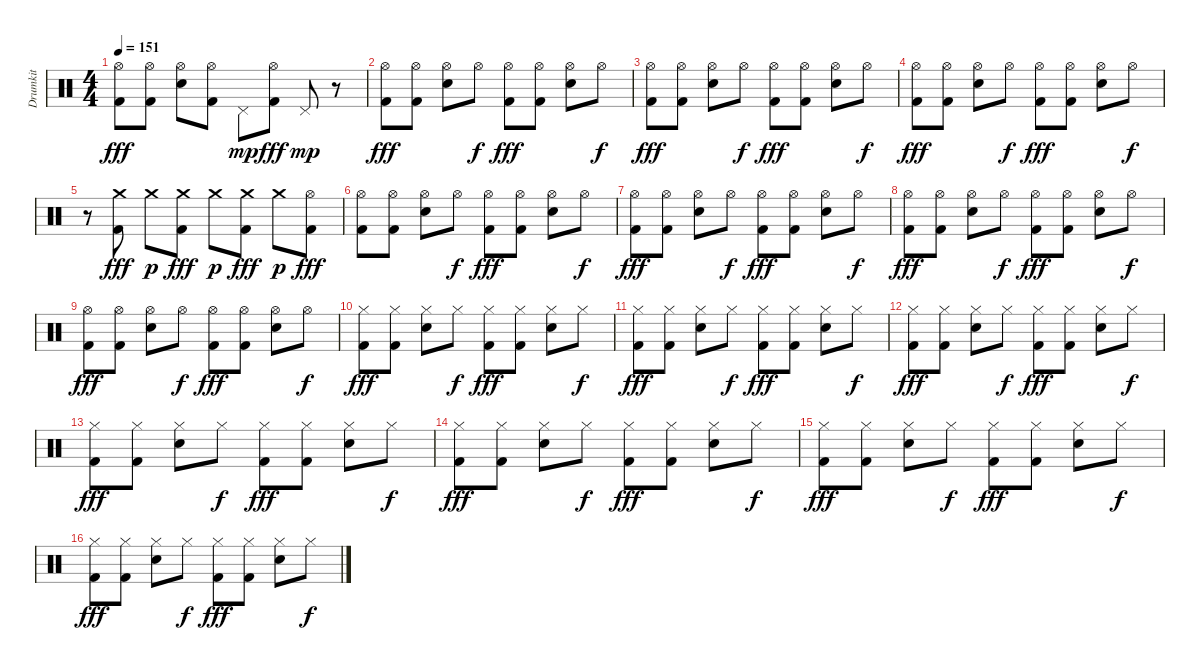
\track ("Drumkit" "Drumkit") {instrument percussion}
\staff {score}
\articulation defaults
\ts (4 4)
\tempo 151
\clef neutral
\ks c
("Kick (hit) 2" "Hi-Hat (open)").8{dy fff} ("Hi-Hat (open)" "Kick (hit) 2").8 ("Electric Snare (hit)" "Hi-Hat (open)").8 ("Kick (hit) 2" "Hi-Hat (open)").8 "Pedal Hi-Hat (hit)".8{dy mp} ("Kick (hit) 2" "Hi-Hat (open)").8{dy fff} "Pedal Hi-Hat (hit)".8{dy mp} r.8 |
("Kick (hit) 2" "Hi-Hat (open)").8{dy fff} ("Hi-Hat (open)" "Kick (hit) 2").8 ("Electric Snare (hit)" "Hi-Hat (open)").8 "Hi-Hat (open)".8{dy f} ("Kick (hit) 2" "Hi-Hat (open)").8{dy fff} ("Kick (hit) 2" "Hi-Hat (open)").8 ("Electric Snare (hit)" "Hi-Hat (open)").8 "Hi-Hat (open)".8{dy f} |
("Kick (hit) 2" "Hi-Hat (open)").8{dy fff} ("Hi-Hat (open)" "Kick (hit) 2").8 ("Electric Snare (hit)" "Hi-Hat (open)").8 "Hi-Hat (open)".8{dy f} ("Kick (hit) 2" "Hi-Hat (open)").8{dy fff} ("Kick (hit) 2" "Hi-Hat (open)").8 ("Electric Snare (hit)" "Hi-Hat (open)").8 "Hi-Hat (open)".8{dy f} |
("Kick (hit) 2" "Hi-Hat (open)").8{dy fff} ("Hi-Hat (open)" "Kick (hit) 2").8 ("Electric Snare (hit)" "Hi-Hat (open)").8 "Hi-Hat (open)".8{dy f} ("Kick (hit) 2" "Hi-Hat (open)").8{dy fff} ("Kick (hit) 2" "Hi-Hat (open)").8 ("Electric Snare (hit)" "Hi-Hat (open)").8 "Hi-Hat (open)".8{dy f} |
r.8 ("Kick (hit) 2" "Crash medium (hit)").8{dy fff} "Crash medium (hit)".8{dy p} ("Kick (hit) 2" "Crash medium (hit)").8{dy fff} "Crash medium (hit)".8{dy p} ("Kick (hit) 2" "Crash medium (hit)").8{dy fff} "Crash medium (hit)".8{dy p} ("Kick (hit) 2" "Hi-Hat (open)").8{dy fff} |
("Kick (hit) 2" "Hi-Hat (open)").8 ("Hi-Hat (open)" "Kick (hit) 2").8 ("Electric Snare (hit)" "Hi-Hat (open)").8 "Hi-Hat (open)".8{dy f} ("Kick (hit) 2" "Hi-Hat (open)").8{dy fff} ("Kick (hit) 2" "Hi-Hat (open)").8 ("Electric Snare (hit)" "Hi-Hat (open)").8 "Hi-Hat (open)".8{dy f} |
("Kick (hit) 2" "Hi-Hat (open)").8{dy fff} ("Hi-Hat (open)" "Kick (hit) 2").8 ("Electric Snare (hit)" "Hi-Hat (open)").8 "Hi-Hat (open)".8{dy f} ("Kick (hit) 2" "Hi-Hat (open)").8{dy fff} ("Kick (hit) 2" "Hi-Hat (open)").8 ("Electric Snare (hit)" "Hi-Hat (open)").8 "Hi-Hat (open)".8{dy f} |
("Kick (hit) 2" "Hi-Hat (open)").8{dy fff} ("Hi-Hat (open)" "Kick (hit) 2").8 ("Electric Snare (hit)" "Hi-Hat (open)").8 "Hi-Hat (open)".8{dy f} ("Kick (hit) 2" "Hi-Hat (open)").8{dy fff} ("Kick (hit) 2" "Hi-Hat (open)").8 ("Electric Snare (hit)" "Hi-Hat (open)").8 "Hi-Hat (open)".8{dy f} |
("Kick (hit) 2" "Hi-Hat (open)").8{dy fff} ("Hi-Hat (open)" "Kick (hit) 2").8 ("Electric Snare (hit)" "Hi-Hat (open)").8 "Hi-Hat (open)".8{dy f} ("Kick (hit) 2" "Hi-Hat (open)").8{dy fff} ("Kick (hit) 2" "Hi-Hat (open)").8 ("Electric Snare (hit)" "Hi-Hat (open)").8 "Hi-Hat (open)".8{dy f} |
("Kick (hit) 2" "Hi-Hat (closed)").8{dy fff} ("Hi-Hat (closed)" "Kick (hit) 2").8 ("Electric Snare (hit)" "Hi-Hat (closed)").8 "Hi-Hat (closed)".8{dy f} ("Kick (hit) 2" "Hi-Hat (closed)").8{dy fff} ("Kick (hit) 2" "Hi-Hat (closed)").8 ("Electric Snare (hit)" "Hi-Hat (closed)").8 "Hi-Hat (closed)".8{dy f} |
("Kick (hit) 2" "Hi-Hat (closed)").8{dy fff} ("Hi-Hat (closed)" "Kick (hit) 2").8 ("Electric Snare (hit)" "Hi-Hat (closed)").8 "Hi-Hat (closed)".8{dy f} ("Kick (hit) 2" "Hi-Hat (closed)").8{dy fff} ("Kick (hit) 2" "Hi-Hat (closed)").8 ("Electric Snare (hit)" "Hi-Hat (closed)").8 "Hi-Hat (closed)".8{dy f} |
("Kick (hit) 2" "Hi-Hat (closed)").8{dy fff} ("Hi-Hat (closed)" "Kick (hit) 2").8 ("Electric Snare (hit)" "Hi-Hat (closed)").8 "Hi-Hat (closed)".8{dy f} ("Kick (hit) 2" "Hi-Hat (closed)").8{dy fff} ("Kick (hit) 2" "Hi-Hat (closed)").8 ("Electric Snare (hit)" "Hi-Hat (closed)").8 "Hi-Hat (closed)".8{dy f} |
("Kick (hit) 2" "Hi-Hat (closed)").8{dy fff} ("Hi-Hat (closed)" "Kick (hit) 2").8 ("Electric Snare (hit)" "Hi-Hat (closed)").8 "Hi-Hat (closed)".8{dy f} ("Kick (hit) 2" "Hi-Hat (closed)").8{dy fff} ("Kick (hit) 2" "Hi-Hat (closed)").8 ("Electric Snare (hit)" "Hi-Hat (closed)").8 "Hi-Hat (closed)".8{dy f} |
("Kick (hit) 2" "Hi-Hat (closed)").8{dy fff} ("Hi-Hat (closed)" "Kick (hit) 2").8 ("Electric Snare (hit)" "Hi-Hat (closed)").8 "Hi-Hat (closed)".8{dy f} ("Kick (hit) 2" "Hi-Hat (closed)").8{dy fff} ("Kick (hit) 2" "Hi-Hat (closed)").8 ("Electric Snare (hit)" "Hi-Hat (closed)").8 "Hi-Hat (closed)".8{dy f} |
("Kick (hit) 2" "Hi-Hat (closed)").8{dy fff} ("Hi-Hat (closed)" "Kick (hit) 2").8 ("Electric Snare (hit)" "Hi-Hat (closed)").8 "Hi-Hat (closed)".8{dy f} ("Kick (hit) 2" "Hi-Hat (closed)").8{dy fff} ("Kick (hit) 2" "Hi-Hat (closed)").8 ("Electric Snare (hit)" "Hi-Hat (closed)").8 "Hi-Hat (closed)".8{dy f} |
("Kick (hit) 2" "Hi-Hat (closed)").8{dy fff} ("Hi-Hat (closed)" "Kick (hit) 2").8 ("Electric Snare (hit)" "Hi-Hat (closed)").8 "Hi-Hat (closed)".8{dy f} ("Kick (hit) 2" "Hi-Hat (closed)").8{dy fff} ("Kick (hit) 2" "Hi-Hat (closed)").8 ("Electric Snare (hit)" "Hi-Hat (closed)").8 "Hi-Hat (closed)".8{dy f}
